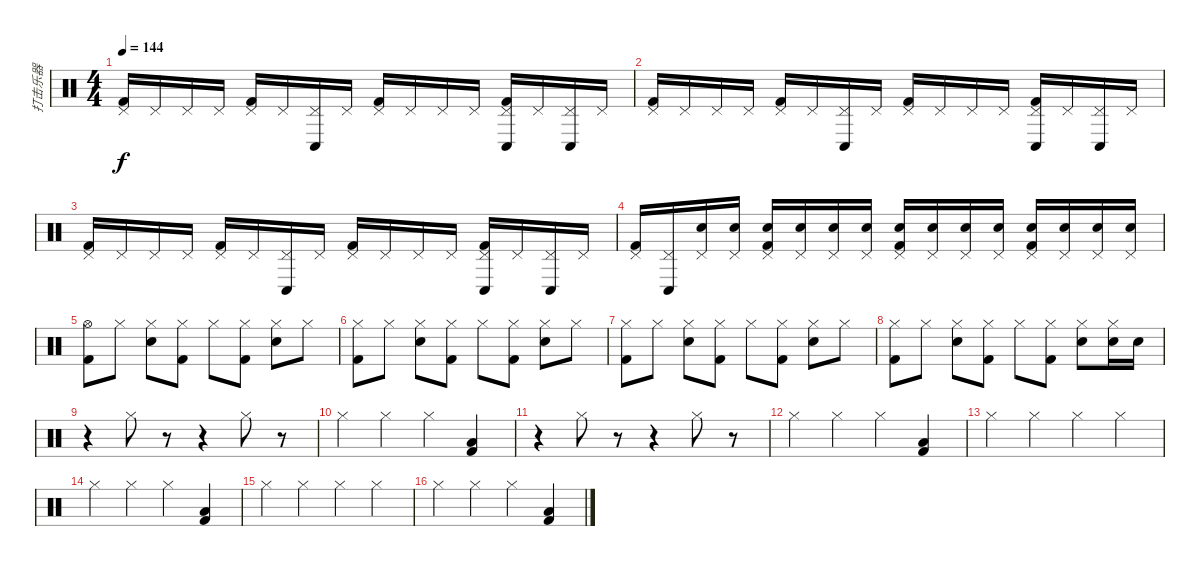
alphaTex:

\track ("打击乐器" "打击乐器") {instrument percussion}
\staff {score}
\articulation defaults
\ts (4 4)
\tempo 144
\clef neutral
\ks c
("Pedal Hi-Hat (hit)" "Kick (hit) 2").16{dy f} "Pedal Hi-Hat (hit)".16 "Pedal Hi-Hat (hit)".16 "Pedal Hi-Hat (hit)".16 ("Pedal Hi-Hat (hit)" "Kick (hit) 2").16 "Pedal Hi-Hat (hit)".16 ("Pedal Hi-Hat (hit)" "Conga low (hit)").16 "Pedal Hi-Hat (hit)".16 ("Pedal Hi-Hat (hit)" "Kick (hit) 2").16 "Pedal Hi-Hat (hit)".16 "Pedal Hi-Hat (hit)".16 "Pedal Hi-Hat (hit)".16 ("Pedal Hi-Hat (hit)" "Conga low (hit)" "Kick (hit) 2").16 "Pedal Hi-Hat (hit)".16 ("Pedal Hi-Hat (hit)" "Conga low (hit)").16 "Pedal Hi-Hat (hit)".16 |
("Pedal Hi-Hat (hit)" "Kick (hit) 2").16 "Pedal Hi-Hat (hit)".16 "Pedal Hi-Hat (hit)".16 "Pedal Hi-Hat (hit)".16 ("Pedal Hi-Hat (hit)" "Kick (hit) 2").16 "Pedal Hi-Hat (hit)".16 ("Pedal Hi-Hat (hit)" "Conga low (hit)").16 "Pedal Hi-Hat (hit)".16 ("Pedal Hi-Hat (hit)" "Kick (hit) 2").16 "Pedal Hi-Hat (hit)".16 "Pedal Hi-Hat (hit)".16 "Pedal Hi-Hat (hit)".16 ("Pedal Hi-Hat (hit)" "Conga low (hit)" "Kick (hit) 2").16 "Pedal Hi-Hat (hit)".16 ("Pedal Hi-Hat (hit)" "Conga low (hit)").16 "Pedal Hi-Hat (hit)".16 |
("Pedal Hi-Hat (hit)" "Kick (hit) 2").16 "Pedal Hi-Hat (hit)".16 "Pedal Hi-Hat (hit)".16 "Pedal Hi-Hat (hit)".16 ("Pedal Hi-Hat (hit)" "Kick (hit) 2").16 "Pedal Hi-Hat (hit)".16 ("Pedal Hi-Hat (hit)" "Conga low (hit)").16 "Pedal Hi-Hat (hit)".16 ("Pedal Hi-Hat (hit)" "Kick (hit) 2").16 "Pedal Hi-Hat (hit)".16 "Pedal Hi-Hat (hit)".16 "Pedal Hi-Hat (hit)".16 ("Pedal Hi-Hat (hit)" "Conga low (hit)" "Kick (hit) 2").16 "Pedal Hi-Hat (hit)".16 ("Pedal Hi-Hat (hit)" "Conga low (hit)").16 "Pedal Hi-Hat (hit)".16 |
("Pedal Hi-Hat (hit)" "Kick (hit) 2").16 ("Pedal Hi-Hat (hit)" "Conga low (hit)").16 ("Pedal Hi-Hat (hit)" "Electric Snare (hit)").16 ("Pedal Hi-Hat (hit)" "Electric Snare (hit)").16 ("Pedal Hi-Hat (hit)" "Electric Snare (hit)" "Kick (hit) 2").16 ("Pedal Hi-Hat (hit)" "Electric Snare (hit)").16 ("Pedal Hi-Hat (hit)" "Electric Snare (hit)").16 ("Pedal Hi-Hat (hit)" "Electric Snare (hit)").16 ("Pedal Hi-Hat (hit)" "Electric Snare (hit)" "Kick (hit) 2").16 ("Pedal Hi-Hat (hit)" "Electric Snare (hit)").16 ("Pedal Hi-Hat (hit)" "Electric Snare (hit)").16 ("Pedal Hi-Hat (hit)" "Electric Snare (hit)").16 ("Pedal Hi-Hat (hit)" "Electric Snare (hit)" "Kick (hit) 2").16 ("Pedal Hi-Hat (hit)" "Electric Snare (hit)").16 ("Pedal Hi-Hat (hit)" "Electric Snare (hit)").16 ("Pedal Hi-Hat (hit)" "Electric Snare (hit)").16 |
("Hi-Hat (open)" "Kick (hit) 2").8 "Hi-Hat (closed)".8 ("Hi-Hat (closed)" "Electric Snare (hit)").8 ("Hi-Hat (closed)" "Kick (hit) 2").8 "Hi-Hat (closed)".8 ("Hi-Hat (closed)" "Kick (hit) 2").8 ("Hi-Hat (closed)" "Electric Snare (hit)").8 "Hi-Hat (closed)".8 |
("Hi-Hat (closed)" "Kick (hit) 2").8 "Hi-Hat (closed)".8 ("Hi-Hat (closed)" "Electric Snare (hit)").8 ("Hi-Hat (closed)" "Kick (hit) 2").8 "Hi-Hat (closed)".8 ("Hi-Hat (closed)" "Kick (hit) 2").8 ("Hi-Hat (closed)" "Electric Snare (hit)").8 "Hi-Hat (closed)".8 |
("Hi-Hat (closed)" "Kick (hit) 2").8 "Hi-Hat (closed)".8 ("Hi-Hat (closed)" "Electric Snare (hit)").8 ("Hi-Hat (closed)" "Kick (hit) 2").8 "Hi-Hat (closed)".8 ("Hi-Hat (closed)" "Kick (hit) 2").8 ("Hi-Hat (closed)" "Electric Snare (hit)").8 "Hi-Hat (closed)".8 |
("Hi-Hat (closed)" "Kick (hit) 2").8 "Hi-Hat (closed)".8 ("Hi-Hat (closed)" "Electric Snare (hit)").8 ("Hi-Hat (closed)" "Kick (hit) 2").8 "Hi-Hat (closed)".8 ("Hi-Hat (closed)" "Kick (hit) 2").8 ("Hi-Hat (closed)" "Electric Snare (hit)").8 ("Hi-Hat (closed)" "Electric Snare (hit)").16 "Electric Snare (hit)".16 |
r.4 "Hi-Hat (closed)".8 r.8 r.4 "Hi-Hat (closed)".8 r.8 |
"Hi-Hat (closed)".4 "Hi-Hat (closed)".4 "Hi-Hat (closed)".4 ("Low Floor Tom (hit)" "Kick (hit) 2").4 |
r.4 "Hi-Hat (closed)".8 r.8 r.4 "Hi-Hat (closed)".8 r.8 |
"Hi-Hat (closed)".4 "Hi-Hat (closed)".4 "Hi-Hat (closed)".4 ("Low Floor Tom (hit)" "Kick (hit) 2").4 |
"Hi-Hat (closed)".4 "Hi-Hat (closed)".4 "Hi-Hat (closed)".4 "Hi-Hat (closed)".4 |
"Hi-Hat (closed)".4 "Hi-Hat (closed)".4 "Hi-Hat (closed)".4 ("Low Floor Tom (hit)" "Kick (hit) 2").4 |
"Hi-Hat (closed)".4 "Hi-Hat (closed)".4 "Hi-Hat (closed)".4 "Hi-Hat (closed)".4 |
"Hi-Hat (closed)".4 "Hi-Hat (closed)".4 "Hi-Hat (closed)".4 ("Low Floor Tom (hit)" "Kick (hit) 2").4
